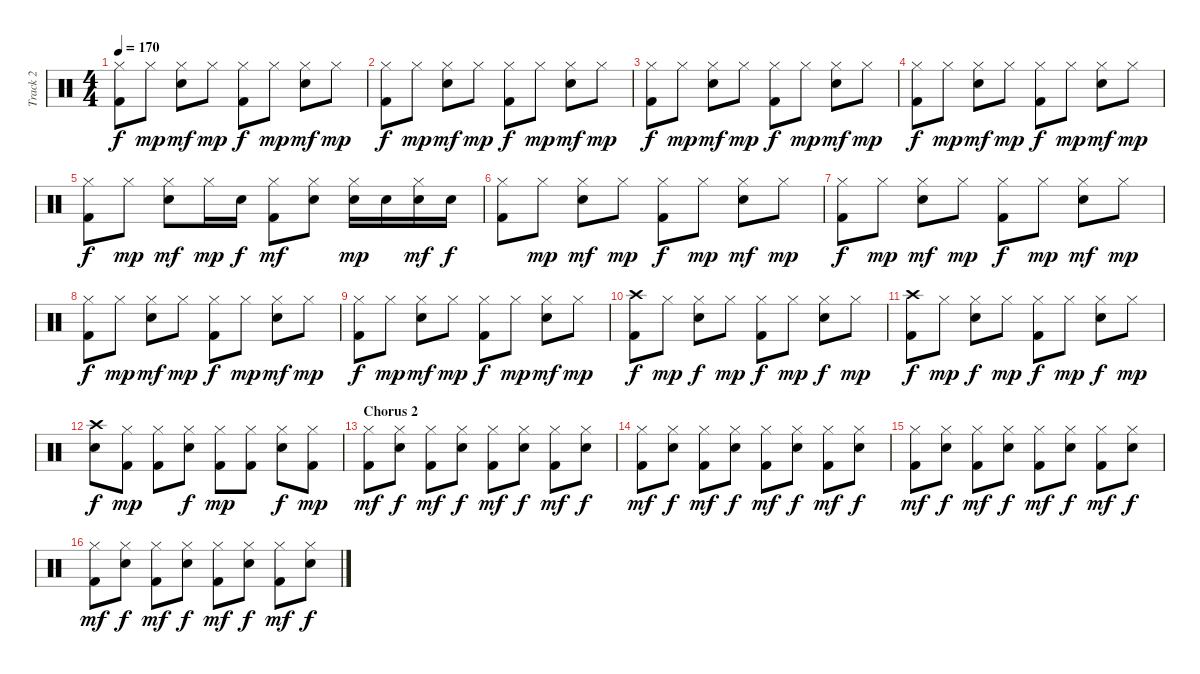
\track ("Track 2" "Track 2") {instrument percussion}
\staff {score}
\articulation defaults
\ts (4 4)
\tempo 170
\clef neutral
\ks c
("Hi-Hat (closed)" "Kick (hit) 2").8{dy f} "Hi-Hat (closed)".8{dy mp} ("Hi-Hat (closed)" "Electric Snare (hit)").8{dy mf} "Hi-Hat (closed)".8{dy mp} ("Hi-Hat (closed)" "Kick (hit) 2").8{dy f} "Hi-Hat (closed)".8{dy mp} ("Hi-Hat (closed)" "Electric Snare (hit)").8{dy mf} "Hi-Hat (closed)".8{dy mp} |
("Hi-Hat (closed)" "Kick (hit) 2").8{dy f} "Hi-Hat (closed)".8{dy mp} ("Hi-Hat (closed)" "Electric Snare (hit)").8{dy mf} "Hi-Hat (closed)".8{dy mp} ("Hi-Hat (closed)" "Kick (hit) 2").8{dy f} "Hi-Hat (closed)".8{dy mp} ("Hi-Hat (closed)" "Electric Snare (hit)").8{dy mf} "Hi-Hat (closed)".8{dy mp} |
("Hi-Hat (closed)" "Kick (hit) 2").8{dy f} "Hi-Hat (closed)".8{dy mp} ("Hi-Hat (closed)" "Electric Snare (hit)").8{dy mf} "Hi-Hat (closed)".8{dy mp} ("Hi-Hat (closed)" "Kick (hit) 2").8{dy f} "Hi-Hat (closed)".8{dy mp} ("Hi-Hat (closed)" "Electric Snare (hit)").8{dy mf} "Hi-Hat (closed)".8{dy mp} |
("Hi-Hat (closed)" "Kick (hit) 2").8{dy f} "Hi-Hat (closed)".8{dy mp} ("Hi-Hat (closed)" "Electric Snare (hit)").8{dy mf} "Hi-Hat (closed)".8{dy mp} ("Hi-Hat (closed)" "Kick (hit) 2").8{dy f} "Hi-Hat (closed)".8{dy mp} ("Hi-Hat (closed)" "Electric Snare (hit)").8{dy mf} "Hi-Hat (closed)".8{dy mp} |
("Hi-Hat (closed)" "Kick (hit) 2").8{dy f} "Hi-Hat (closed)".8{dy mp} ("Hi-Hat (closed)" "Electric Snare (hit)").8{dy mf} "Hi-Hat (closed)".16{dy mp} "Electric Snare (hit)".16{dy f} ("Hi-Hat (closed)" "Kick (hit) 2").8{dy mf} ("Hi-Hat (closed)" "Electric Snare (hit)").8 ("Hi-Hat (closed)" "Electric Snare (hit)").16{dy mp} "Electric Snare (hit)".16 ("Hi-Hat (closed)" "Electric Snare (hit)").16{dy mf} "Electric Snare (hit)".16{dy f} |
("Hi-Hat (closed)" "Kick (hit) 2").8 "Hi-Hat (closed)".8{dy mp} ("Hi-Hat (closed)" "Electric Snare (hit)").8{dy mf} "Hi-Hat (closed)".8{dy mp} ("Hi-Hat (closed)" "Kick (hit) 2").8{dy f} "Hi-Hat (closed)".8{dy mp} ("Hi-Hat (closed)" "Electric Snare (hit)").8{dy mf} "Hi-Hat (closed)".8{dy mp} |
("Hi-Hat (closed)" "Kick (hit) 2").8{dy f} "Hi-Hat (closed)".8{dy mp} ("Hi-Hat (closed)" "Electric Snare (hit)").8{dy mf} "Hi-Hat (closed)".8{dy mp} ("Hi-Hat (closed)" "Kick (hit) 2").8{dy f} "Hi-Hat (closed)".8{dy mp} ("Hi-Hat (closed)" "Electric Snare (hit)").8{dy mf} "Hi-Hat (closed)".8{dy mp} |
("Hi-Hat (closed)" "Kick (hit) 2").8{dy f} "Hi-Hat (closed)".8{dy mp} ("Hi-Hat (closed)" "Electric Snare (hit)").8{dy mf} "Hi-Hat (closed)".8{dy mp} ("Hi-Hat (closed)" "Kick (hit) 2").8{dy f} "Hi-Hat (closed)".8{dy mp} ("Hi-Hat (closed)" "Electric Snare (hit)").8{dy mf} "Hi-Hat (closed)".8{dy mp} |
("Hi-Hat (closed)" "Kick (hit) 2").8{dy f} "Hi-Hat (closed)".8{dy mp} ("Hi-Hat (closed)" "Electric Snare (hit)").8{dy mf} "Hi-Hat (closed)".8{dy mp} ("Hi-Hat (closed)" "Kick (hit) 2").8{dy f} "Hi-Hat (closed)".8{dy mp} ("Hi-Hat (closed)" "Electric Snare (hit)").8{dy mf} "Hi-Hat (closed)".8{dy mp} |
("Crash high (hit)" "Kick (hit) 2").8{dy f} "Hi-Hat (closed)".8{dy mp} ("Hi-Hat (closed)" "Electric Snare (hit)").8{dy f} "Hi-Hat (closed)".8{dy mp} ("Hi-Hat (closed)" "Kick (hit) 2").8{dy f} "Hi-Hat (closed)".8{dy mp} ("Hi-Hat (closed)" "Electric Snare (hit)").8{dy f} "Hi-Hat (closed)".8{dy mp} |
("Crash high (hit)" "Kick (hit) 2").8{dy f} "Hi-Hat (closed)".8{dy mp} ("Hi-Hat (closed)" "Electric Snare (hit)").8{dy f} "Hi-Hat (closed)".8{dy mp} ("Hi-Hat (closed)" "Kick (hit) 2").8{dy f} "Hi-Hat (closed)".8{dy mp} ("Hi-Hat (closed)" "Electric Snare (hit)").8{dy f} "Hi-Hat (closed)".8{dy mp} |
("Crash high (hit)" "Electric Snare (hit)").8{dy f} ("Hi-Hat (closed)" "Kick (hit) 2").8{dy mp} ("Hi-Hat (closed)" "Kick (hit) 2").8 ("Hi-Hat (closed)" "Electric Snare (hit)").8{dy f} ("Hi-Hat (closed)" "Kick (hit) 2").8{dy mp} ("Hi-Hat (closed)" "Kick (hit) 2").8 ("Hi-Hat (closed)" "Electric Snare (hit)").8{dy f} ("Hi-Hat (closed)" "Kick (hit) 2").8{dy mp} |
\section ("" "Chorus 2")
("Hi-Hat (closed)" "Kick (hit) 2").8{dy mf} ("Hi-Hat (closed)" "Electric Snare (hit)").8{dy f} ("Hi-Hat (closed)" "Kick (hit) 2").8{dy mf} ("Hi-Hat (closed)" "Electric Snare (hit)").8{dy f} ("Hi-Hat (closed)" "Kick (hit) 2").8{dy mf} ("Hi-Hat (closed)" "Electric Snare (hit)").8{dy f} ("Hi-Hat (closed)" "Kick (hit) 2").8{dy mf} ("Hi-Hat (closed)" "Electric Snare (hit)").8{dy f} |
("Hi-Hat (closed)" "Kick (hit) 2").8{dy mf} ("Hi-Hat (closed)" "Electric Snare (hit)").8{dy f} ("Hi-Hat (closed)" "Kick (hit) 2").8{dy mf} ("Hi-Hat (closed)" "Electric Snare (hit)").8{dy f} ("Hi-Hat (closed)" "Kick (hit) 2").8{dy mf} ("Hi-Hat (closed)" "Electric Snare (hit)").8{dy f} ("Hi-Hat (closed)" "Kick (hit) 2").8{dy mf} ("Hi-Hat (closed)" "Electric Snare (hit)").8{dy f} |
("Hi-Hat (closed)" "Kick (hit) 2").8{dy mf} ("Hi-Hat (closed)" "Electric Snare (hit)").8{dy f} ("Hi-Hat (closed)" "Kick (hit) 2").8{dy mf} ("Hi-Hat (closed)" "Electric Snare (hit)").8{dy f} ("Hi-Hat (closed)" "Kick (hit) 2").8{dy mf} ("Hi-Hat (closed)" "Electric Snare (hit)").8{dy f} ("Hi-Hat (closed)" "Kick (hit) 2").8{dy mf} ("Hi-Hat (closed)" "Electric Snare (hit)").8{dy f} |
("Hi-Hat (closed)" "Kick (hit) 2").8{dy mf} ("Hi-Hat (closed)" "Electric Snare (hit)").8{dy f} ("Hi-Hat (closed)" "Kick (hit) 2").8{dy mf} ("Hi-Hat (closed)" "Electric Snare (hit)").8{dy f} ("Hi-Hat (closed)" "Kick (hit) 2").8{dy mf} ("Hi-Hat (closed)" "Electric Snare (hit)").8{dy f} ("Hi-Hat (closed)" "Kick (hit) 2").8{dy mf} ("Hi-Hat (closed)" "Electric Snare (hit)").8{dy f}
